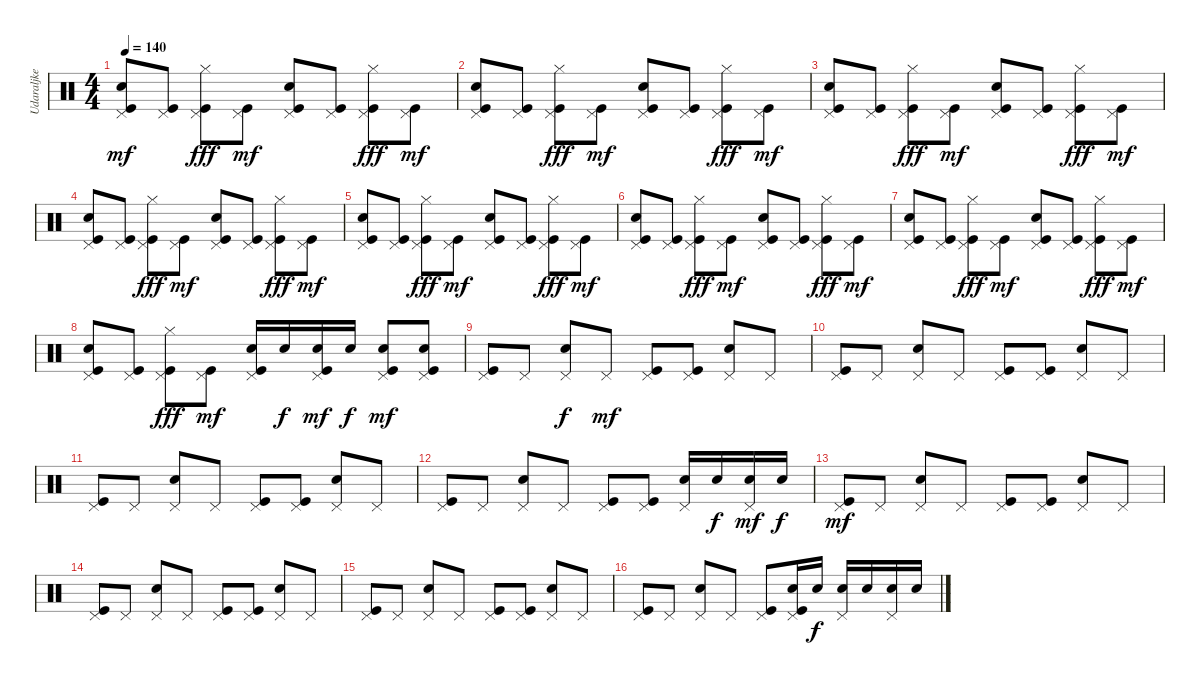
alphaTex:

\track ("Udaraljke" "Udaraljke") {instrument percussion}
\staff {score}
\articulation defaults
\ts (4 4)
\tempo 140
\clef neutral
\ks c
("Kick (hit)" "Pedal Hi-Hat (hit)" "Snare (hit) 2").8{dy mf} ("Kick (hit)" "Pedal Hi-Hat (hit)").8 ("Kick (hit)" "Pedal Hi-Hat (hit)" "Hi-Hat (closed)").8{dy fff} ("Kick (hit)" "Pedal Hi-Hat (hit)").8{dy mf} ("Kick (hit)" "Pedal Hi-Hat (hit)" "Snare (hit) 2").8 ("Kick (hit)" "Pedal Hi-Hat (hit)").8 ("Kick (hit)" "Pedal Hi-Hat (hit)" "Hi-Hat (closed)").8{dy fff} ("Kick (hit)" "Pedal Hi-Hat (hit)").8{dy mf} |
("Kick (hit)" "Pedal Hi-Hat (hit)" "Snare (hit) 2").8 ("Kick (hit)" "Pedal Hi-Hat (hit)").8 ("Kick (hit)" "Pedal Hi-Hat (hit)" "Hi-Hat (closed)").8{dy fff} ("Kick (hit)" "Pedal Hi-Hat (hit)").8{dy mf} ("Kick (hit)" "Pedal Hi-Hat (hit)" "Snare (hit) 2").8 ("Kick (hit)" "Pedal Hi-Hat (hit)").8 ("Kick (hit)" "Pedal Hi-Hat (hit)" "Hi-Hat (closed)").8{dy fff} ("Kick (hit)" "Pedal Hi-Hat (hit)").8{dy mf} |
("Kick (hit)" "Pedal Hi-Hat (hit)" "Snare (hit) 2").8 ("Kick (hit)" "Pedal Hi-Hat (hit)").8 ("Kick (hit)" "Pedal Hi-Hat (hit)" "Hi-Hat (closed)").8{dy fff} ("Kick (hit)" "Pedal Hi-Hat (hit)").8{dy mf} ("Kick (hit)" "Pedal Hi-Hat (hit)" "Snare (hit) 2").8 ("Kick (hit)" "Pedal Hi-Hat (hit)").8 ("Kick (hit)" "Pedal Hi-Hat (hit)" "Hi-Hat (closed)").8{dy fff} ("Kick (hit)" "Pedal Hi-Hat (hit)").8{dy mf} |
("Kick (hit)" "Pedal Hi-Hat (hit)" "Snare (hit) 2").8 ("Kick (hit)" "Pedal Hi-Hat (hit)").8 ("Kick (hit)" "Pedal Hi-Hat (hit)" "Hi-Hat (closed)").8{dy fff} ("Kick (hit)" "Pedal Hi-Hat (hit)").8{dy mf} ("Kick (hit)" "Pedal Hi-Hat (hit)" "Snare (hit) 2").8 ("Kick (hit)" "Pedal Hi-Hat (hit)").8 ("Kick (hit)" "Pedal Hi-Hat (hit)" "Hi-Hat (closed)").8{dy fff} ("Kick (hit)" "Pedal Hi-Hat (hit)").8{dy mf} |
("Kick (hit)" "Pedal Hi-Hat (hit)" "Snare (hit) 2").8 ("Kick (hit)" "Pedal Hi-Hat (hit)").8 ("Kick (hit)" "Pedal Hi-Hat (hit)" "Hi-Hat (closed)").8{dy fff} ("Kick (hit)" "Pedal Hi-Hat (hit)").8{dy mf} ("Kick (hit)" "Pedal Hi-Hat (hit)" "Snare (hit) 2").8 ("Kick (hit)" "Pedal Hi-Hat (hit)").8 ("Kick (hit)" "Pedal Hi-Hat (hit)" "Hi-Hat (closed)").8{dy fff} ("Kick (hit)" "Pedal Hi-Hat (hit)").8{dy mf} |
("Kick (hit)" "Pedal Hi-Hat (hit)" "Snare (hit) 2").8 ("Kick (hit)" "Pedal Hi-Hat (hit)").8 ("Kick (hit)" "Pedal Hi-Hat (hit)" "Hi-Hat (closed)").8{dy fff} ("Kick (hit)" "Pedal Hi-Hat (hit)").8{dy mf} ("Kick (hit)" "Pedal Hi-Hat (hit)" "Snare (hit) 2").8 ("Kick (hit)" "Pedal Hi-Hat (hit)").8 ("Kick (hit)" "Pedal Hi-Hat (hit)" "Hi-Hat (closed)").8{dy fff} ("Kick (hit)" "Pedal Hi-Hat (hit)").8{dy mf} |
("Kick (hit)" "Pedal Hi-Hat (hit)" "Snare (hit) 2").8 ("Kick (hit)" "Pedal Hi-Hat (hit)").8 ("Kick (hit)" "Pedal Hi-Hat (hit)" "Hi-Hat (closed)").8{dy fff} ("Kick (hit)" "Pedal Hi-Hat (hit)").8{dy mf} ("Kick (hit)" "Pedal Hi-Hat (hit)" "Snare (hit) 2").8 ("Kick (hit)" "Pedal Hi-Hat (hit)").8 ("Kick (hit)" "Pedal Hi-Hat (hit)" "Hi-Hat (closed)").8{dy fff} ("Kick (hit)" "Pedal Hi-Hat (hit)").8{dy mf} |
("Kick (hit)" "Pedal Hi-Hat (hit)" "Snare (hit) 2").8 ("Kick (hit)" "Pedal Hi-Hat (hit)").8 ("Kick (hit)" "Pedal Hi-Hat (hit)" "Hi-Hat (closed)").8{dy fff} ("Kick (hit)" "Pedal Hi-Hat (hit)").8{dy mf} ("Kick (hit)" "Pedal Hi-Hat (hit)" "Snare (hit) 2").16 "Snare (hit) 2".16{dy f} ("Kick (hit)" "Pedal Hi-Hat (hit)" "Snare (hit) 2").16{dy mf} "Snare (hit) 2".16{dy f} ("Kick (hit)" "Pedal Hi-Hat (hit)" "Snare (hit) 2").8{dy mf} ("Kick (hit)" "Pedal Hi-Hat (hit)" "Snare (hit) 2").8 |
("Kick (hit)" "Pedal Hi-Hat (hit)").8 "Pedal Hi-Hat (hit)".8 ("Pedal Hi-Hat (hit)" "Snare (hit) 2").8{dy f} "Pedal Hi-Hat (hit)".8{dy mf} ("Kick (hit)" "Pedal Hi-Hat (hit)").8 ("Kick (hit)" "Pedal Hi-Hat (hit)").8 ("Pedal Hi-Hat (hit)" "Snare (hit) 2").8 "Pedal Hi-Hat (hit)".8 |
("Kick (hit)" "Pedal Hi-Hat (hit)").8 "Pedal Hi-Hat (hit)".8 ("Pedal Hi-Hat (hit)" "Snare (hit) 2").8 "Pedal Hi-Hat (hit)".8 ("Kick (hit)" "Pedal Hi-Hat (hit)").8 ("Kick (hit)" "Pedal Hi-Hat (hit)").8 ("Pedal Hi-Hat (hit)" "Snare (hit) 2").8 "Pedal Hi-Hat (hit)".8 |
("Kick (hit)" "Pedal Hi-Hat (hit)").8 "Pedal Hi-Hat (hit)".8 ("Pedal Hi-Hat (hit)" "Snare (hit) 2").8 "Pedal Hi-Hat (hit)".8 ("Kick (hit)" "Pedal Hi-Hat (hit)").8 ("Kick (hit)" "Pedal Hi-Hat (hit)").8 ("Pedal Hi-Hat (hit)" "Snare (hit) 2").8 "Pedal Hi-Hat (hit)".8 |
("Kick (hit)" "Pedal Hi-Hat (hit)").8 "Pedal Hi-Hat (hit)".8 ("Pedal Hi-Hat (hit)" "Snare (hit) 2").8 "Pedal Hi-Hat (hit)".8 ("Kick (hit)" "Pedal Hi-Hat (hit)").8 ("Kick (hit)" "Pedal Hi-Hat (hit)").8 ("Pedal Hi-Hat (hit)" "Snare (hit) 2").16 "Snare (hit) 2".16{dy f} ("Pedal Hi-Hat (hit)" "Snare (hit) 2").16{dy mf} "Snare (hit) 2".16{dy f} |
("Kick (hit)" "Pedal Hi-Hat (hit)").8{dy mf} "Pedal Hi-Hat (hit)".8 ("Pedal Hi-Hat (hit)" "Snare (hit) 2").8 "Pedal Hi-Hat (hit)".8 ("Kick (hit)" "Pedal Hi-Hat (hit)").8 ("Kick (hit)" "Pedal Hi-Hat (hit)").8 ("Pedal Hi-Hat (hit)" "Snare (hit) 2").8 "Pedal Hi-Hat (hit)".8 |
("Kick (hit)" "Pedal Hi-Hat (hit)").8 "Pedal Hi-Hat (hit)".8 ("Pedal Hi-Hat (hit)" "Snare (hit) 2").8 "Pedal Hi-Hat (hit)".8 ("Kick (hit)" "Pedal Hi-Hat (hit)").8 ("Kick (hit)" "Pedal Hi-Hat (hit)").8 ("Pedal Hi-Hat (hit)" "Snare (hit) 2").8 "Pedal Hi-Hat (hit)".8 |
("Kick (hit)" "Pedal Hi-Hat (hit)").8 "Pedal Hi-Hat (hit)".8 ("Pedal Hi-Hat (hit)" "Snare (hit) 2").8 "Pedal Hi-Hat (hit)".8 ("Kick (hit)" "Pedal Hi-Hat (hit)").8 ("Kick (hit)" "Pedal Hi-Hat (hit)").8 ("Pedal Hi-Hat (hit)" "Snare (hit) 2").8 "Pedal Hi-Hat (hit)".8 |
("Kick (hit)" "Pedal Hi-Hat (hit)").8 "Pedal Hi-Hat (hit)".8 ("Pedal Hi-Hat (hit)" "Snare (hit) 2").8 "Pedal Hi-Hat (hit)".8 ("Kick (hit)" "Pedal Hi-Hat (hit)").8 ("Kick (hit)" "Pedal Hi-Hat (hit)" "Snare (hit) 2").16 "Snare (hit) 2".16{dy f} ("Pedal Hi-Hat (hit)" "Snare (hit) 2").16 "Snare (hit) 2".16 ("Pedal Hi-Hat (hit)" "Snare (hit) 2").16 "Snare (hit) 2".16
